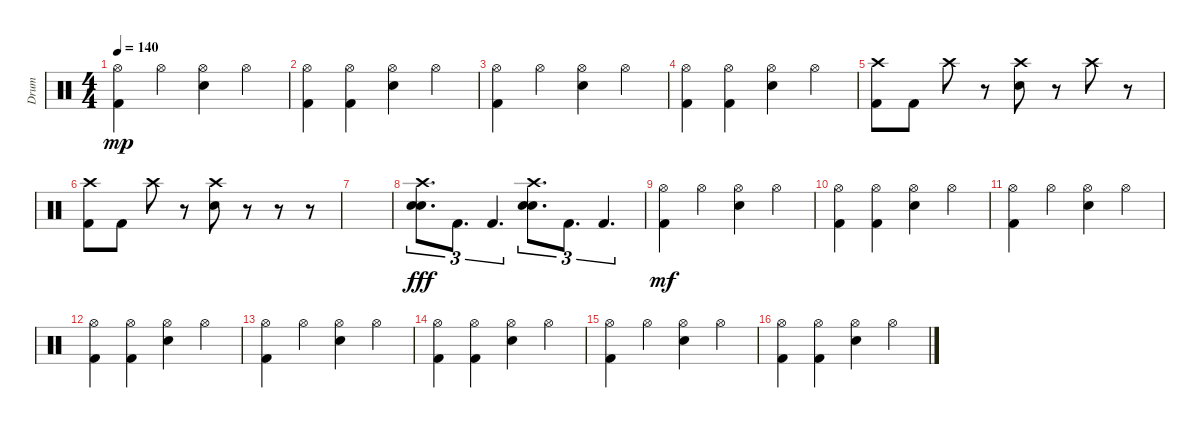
\track ("Drum" "Drum") {instrument percussion}
\staff {score}
\articulation defaults
\ts (4 4)
\tempo 140
\clef neutral
\ks c
("Hi-Hat (open)" "Kick (hit) 2").4{dy mp} "Hi-Hat (open)".4 ("Hi-Hat (open)" "Electric Snare (hit)").4 "Hi-Hat (open)".4 |
("Hi-Hat (open)" "Kick (hit) 2").4 ("Hi-Hat (open)" "Kick (hit) 2").4 ("Hi-Hat (open)" "Electric Snare (hit)").4 "Hi-Hat (open)".4 |
("Hi-Hat (open)" "Kick (hit) 2").4 "Hi-Hat (open)".4 ("Hi-Hat (open)" "Snare (hit) 2").4 "Hi-Hat (open)".4 |
("Hi-Hat (open)" "Kick (hit) 2").4 ("Hi-Hat (open)" "Kick (hit) 2").4 ("Hi-Hat (open)" "Electric Snare (hit)").4 "Hi-Hat (open)".4 |
("Crash high (hit)" "Kick (hit) 2").8 "Kick (hit) 2".8 "Crash high (hit)".8 r.8 ("Crash high (hit)" "Electric Snare (hit)").8 r.8 "Crash high (hit)".8 r.8 |
("Crash high (hit)" "Kick (hit) 2").8 "Kick (hit) 2".8 "Crash high (hit)".8 r.8 ("Crash high (hit)" "Electric Snare (hit)").8 r.8 r.8 r.8 |
|
("Electric Snare (hit)" "Electric Snare (hit)" "Crash high (hit)").8{d tu (3 2) dy fff} "Kick (hit) 2".8{d tu (3 2)} "Kick (hit) 2".4{d tu (3 2)} ("Electric Snare (hit)" "Electric Snare (hit)" "Crash high (hit)").8{d tu (3 2)} "Kick (hit) 2".8{d tu (3 2)} "Kick (hit) 2".4{d tu (3 2)} |
("Hi-Hat (open)" "Kick (hit) 2").4{dy mf} "Hi-Hat (open)".4 ("Hi-Hat (open)" "Electric Snare (hit)").4 "Hi-Hat (open)".4 |
("Hi-Hat (open)" "Kick (hit) 2").4 ("Hi-Hat (open)" "Kick (hit) 2").4 ("Hi-Hat (open)" "Electric Snare (hit)").4 "Hi-Hat (open)".4 |
("Hi-Hat (open)" "Kick (hit) 2").4 "Hi-Hat (open)".4 ("Hi-Hat (open)" "Snare (hit) 2").4 "Hi-Hat (open)".4 |
("Hi-Hat (open)" "Kick (hit) 2").4 ("Hi-Hat (open)" "Kick (hit) 2").4 ("Hi-Hat (open)" "Electric Snare (hit)").4 "Hi-Hat (open)".4 |
("Hi-Hat (open)" "Kick (hit) 2").4 "Hi-Hat (open)".4 ("Hi-Hat (open)" "Electric Snare (hit)").4 "Hi-Hat (open)".4 |
("Hi-Hat (open)" "Kick (hit) 2").4 ("Hi-Hat (open)" "Kick (hit) 2").4 ("Hi-Hat (open)" "Electric Snare (hit)").4 "Hi-Hat (open)".4 |
("Hi-Hat (open)" "Kick (hit) 2").4 "Hi-Hat (open)".4 ("Hi-Hat (open)" "Snare (hit) 2").4 "Hi-Hat (open)".4 |
("Hi-Hat (open)" "Kick (hit) 2").4 ("Hi-Hat (open)" "Kick (hit) 2").4 ("Hi-Hat (open)" "Electric Snare (hit)").4 "Hi-Hat (open)".4
